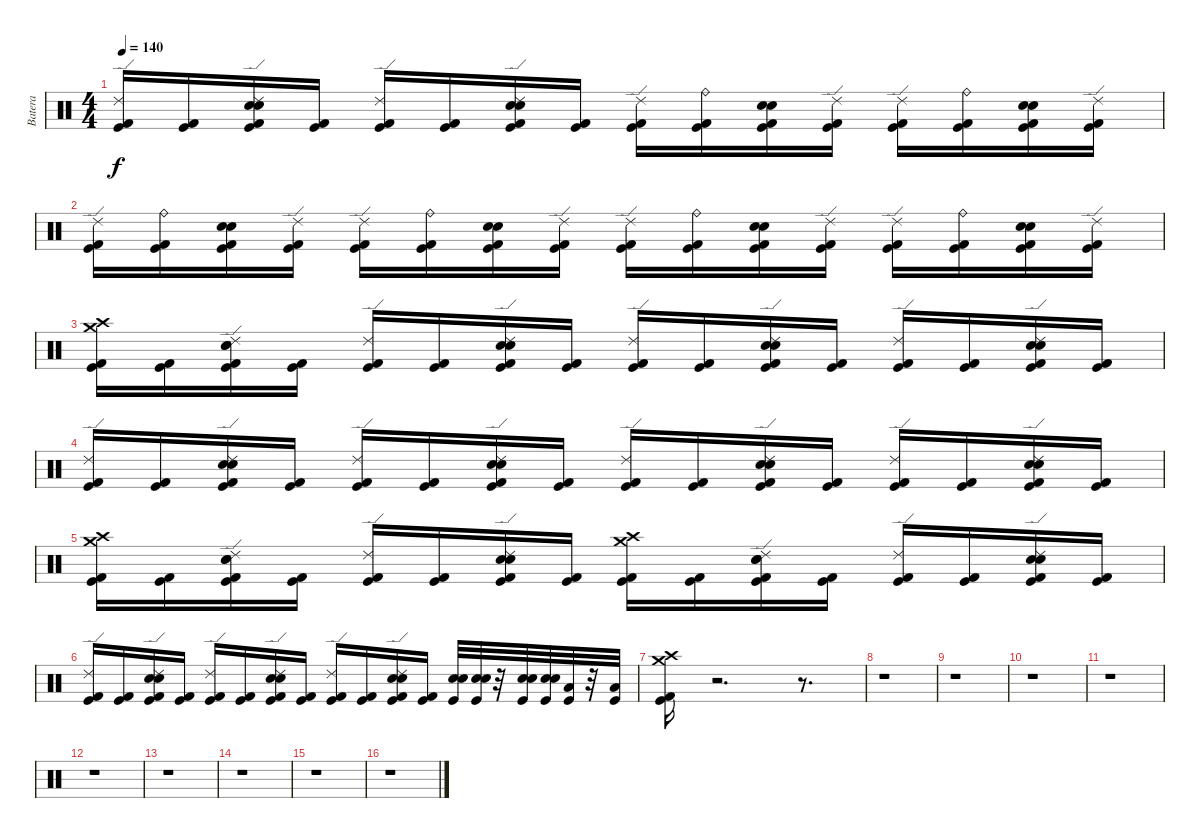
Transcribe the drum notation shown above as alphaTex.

\track ("Batera" "Batera") {instrument percussion}
\staff {score}
\articulation defaults
\ts (4 4)
\tempo 140
\clef neutral
\ks c
("Ride (edge) 2" "Kick (hit) 2" "Kick (hit)").16{dy f} ("Kick (hit) 2" "Kick (hit)").16 ("Ride (edge) 2" "Electric Snare (hit)" "Snare (hit) 2" "Kick (hit) 2" "Kick (hit)").16 ("Kick (hit) 2" "Kick (hit)").16 ("Ride (edge) 2" "Kick (hit) 2" "Kick (hit)").16 ("Kick (hit) 2" "Kick (hit)").16 ("Ride (edge) 2" "Electric Snare (hit)" "Snare (hit) 2" "Kick (hit) 2" "Kick (hit)").16 ("Kick (hit) 2" "Kick (hit)").16 ("Ride (edge) 2" "Kick (hit) 2" "Kick (hit)").16 ("Ride (bell)" "Kick (hit) 2" "Kick (hit)").16 ("Electric Snare (hit)" "Snare (hit) 2" "Kick (hit) 2" "Kick (hit)").16 ("Ride (edge) 2" "Kick (hit) 2" "Kick (hit)").16 ("Ride (edge) 2" "Kick (hit) 2" "Kick (hit)").16 ("Ride (bell)" "Kick (hit) 2" "Kick (hit)").16 ("Electric Snare (hit)" "Snare (hit) 2" "Kick (hit) 2" "Kick (hit)").16 ("Ride (edge) 2" "Kick (hit) 2" "Kick (hit)").16 |
("Ride (edge) 2" "Kick (hit) 2" "Kick (hit)").16 ("Ride (bell)" "Kick (hit) 2" "Kick (hit)").16 ("Electric Snare (hit)" "Snare (hit) 2" "Kick (hit) 2" "Kick (hit)").16 ("Ride (edge) 2" "Kick (hit) 2" "Kick (hit)").16 ("Ride (edge) 2" "Kick (hit) 2" "Kick (hit)").16 ("Ride (bell)" "Kick (hit) 2" "Kick (hit)").16 ("Electric Snare (hit)" "Snare (hit) 2" "Kick (hit) 2" "Kick (hit)").16 ("Ride (edge) 2" "Kick (hit) 2" "Kick (hit)").16 ("Ride (edge) 2" "Kick (hit) 2" "Kick (hit)").16 ("Ride (bell)" "Kick (hit) 2" "Kick (hit)").16 ("Electric Snare (hit)" "Snare (hit) 2" "Kick (hit) 2" "Kick (hit)").16 ("Ride (edge) 2" "Kick (hit) 2" "Kick (hit)").16 ("Ride (edge) 2" "Kick (hit) 2" "Kick (hit)").16 ("Ride (bell)" "Kick (hit) 2" "Kick (hit)").16 ("Electric Snare (hit)" "Snare (hit) 2" "Kick (hit) 2" "Kick (hit)").16 ("Ride (edge) 2" "Kick (hit) 2" "Kick (hit)").16 |
("Crash high (hit)" "Crash medium (hit)" "Kick (hit) 2" "Kick (hit)").16 ("Kick (hit) 2" "Kick (hit)").16 ("Ride (edge) 2" "Electric Snare (hit)" "Snare (hit) 2" "Kick (hit) 2" "Kick (hit)").16 ("Kick (hit) 2" "Kick (hit)").16 ("Ride (edge) 2" "Kick (hit) 2" "Kick (hit)").16 ("Kick (hit) 2" "Kick (hit)").16 ("Ride (edge) 2" "Electric Snare (hit)" "Snare (hit) 2" "Kick (hit) 2" "Kick (hit)").16 ("Kick (hit) 2" "Kick (hit)").16 ("Ride (edge) 2" "Kick (hit) 2" "Kick (hit)").16 ("Kick (hit) 2" "Kick (hit)").16 ("Ride (edge) 2" "Electric Snare (hit)" "Snare (hit) 2" "Kick (hit) 2" "Kick (hit)").16 ("Kick (hit) 2" "Kick (hit)").16 ("Ride (edge) 2" "Kick (hit) 2" "Kick (hit)").16 ("Kick (hit) 2" "Kick (hit)").16 ("Ride (edge) 2" "Electric Snare (hit)" "Snare (hit) 2" "Kick (hit) 2" "Kick (hit)").16 ("Kick (hit) 2" "Kick (hit)").16 |
("Ride (edge) 2" "Kick (hit) 2" "Kick (hit)").16 ("Kick (hit) 2" "Kick (hit)").16 ("Ride (edge) 2" "Electric Snare (hit)" "Snare (hit) 2" "Kick (hit) 2" "Kick (hit)").16 ("Kick (hit) 2" "Kick (hit)").16 ("Ride (edge) 2" "Kick (hit) 2" "Kick (hit)").16 ("Kick (hit) 2" "Kick (hit)").16 ("Ride (edge) 2" "Electric Snare (hit)" "Snare (hit) 2" "Kick (hit) 2" "Kick (hit)").16 ("Kick (hit) 2" "Kick (hit)").16 ("Ride (edge) 2" "Kick (hit) 2" "Kick (hit)").16 ("Kick (hit) 2" "Kick (hit)").16 ("Ride (edge) 2" "Electric Snare (hit)" "Snare (hit) 2" "Kick (hit) 2" "Kick (hit)").16 ("Kick (hit) 2" "Kick (hit)").16 ("Ride (edge) 2" "Kick (hit) 2" "Kick (hit)").16 ("Kick (hit) 2" "Kick (hit)").16 ("Ride (edge) 2" "Electric Snare (hit)" "Snare (hit) 2" "Kick (hit) 2" "Kick (hit)").16 ("Kick (hit) 2" "Kick (hit)").16 |
("Crash high (hit)" "Crash medium (hit)" "Kick (hit) 2" "Kick (hit)").16 ("Kick (hit) 2" "Kick (hit)").16 ("Ride (edge) 2" "Electric Snare (hit)" "Snare (hit) 2" "Kick (hit) 2" "Kick (hit)").16 ("Kick (hit) 2" "Kick (hit)").16 ("Ride (edge) 2" "Kick (hit) 2" "Kick (hit)").16 ("Kick (hit) 2" "Kick (hit)").16 ("Ride (edge) 2" "Electric Snare (hit)" "Snare (hit) 2" "Kick (hit) 2" "Kick (hit)").16 ("Kick (hit) 2" "Kick (hit)").16 ("Crash high (hit)" "Crash medium (hit)" "Kick (hit) 2" "Kick (hit)").16 ("Kick (hit) 2" "Kick (hit)").16 ("Ride (edge) 2" "Electric Snare (hit)" "Snare (hit) 2" "Kick (hit) 2" "Kick (hit)").16 ("Kick (hit) 2" "Kick (hit)").16 ("Ride (edge) 2" "Kick (hit) 2" "Kick (hit)").16 ("Kick (hit) 2" "Kick (hit)").16 ("Ride (edge) 2" "Electric Snare (hit)" "Snare (hit) 2" "Kick (hit) 2" "Kick (hit)").16 ("Kick (hit) 2" "Kick (hit)").16 |
("Ride (edge) 2" "Kick (hit) 2" "Kick (hit)").16 ("Kick (hit) 2" "Kick (hit)").16 ("Ride (edge) 2" "Electric Snare (hit)" "Snare (hit) 2" "Kick (hit) 2" "Kick (hit)").16 ("Kick (hit) 2" "Kick (hit)").16 ("Ride (edge) 2" "Kick (hit) 2" "Kick (hit)").16 ("Kick (hit) 2" "Kick (hit)").16 ("Ride (edge) 2" "Electric Snare (hit)" "Snare (hit) 2" "Kick (hit) 2" "Kick (hit)").16 ("Kick (hit) 2" "Kick (hit)").16 ("Ride (edge) 2" "Kick (hit) 2" "Kick (hit)").16 ("Kick (hit) 2" "Kick (hit)").16 ("Ride (edge) 2" "Electric Snare (hit)" "Snare (hit) 2" "Kick (hit) 2" "Kick (hit)").16 ("Kick (hit) 2" "Kick (hit)").16 ("Kick (hit)" "Electric Snare (hit)" "Snare (hit) 2").32 ("Kick (hit)" "Electric Snare (hit)" "Snare (hit) 2").32 r.32 ("Kick (hit)" "Electric Snare (hit)" "Snare (hit) 2").32 ("Kick (hit)" "Electric Snare (hit)" "Snare (hit) 2").32 ("Low Tom (hit)" "Kick (hit)").32 r.32 ("Low Floor Tom (hit)" "Kick (hit)").32 |
("Crash high (hit)" "Crash medium (hit)" "Kick (hit) 2" "Kick (hit)").16 r.2{d} r.8{d} |
r.1 |
r.1 |
r.1 |
r.1 |
r.1 |
r.1 |
r.1 |
r.1 |
r.1
